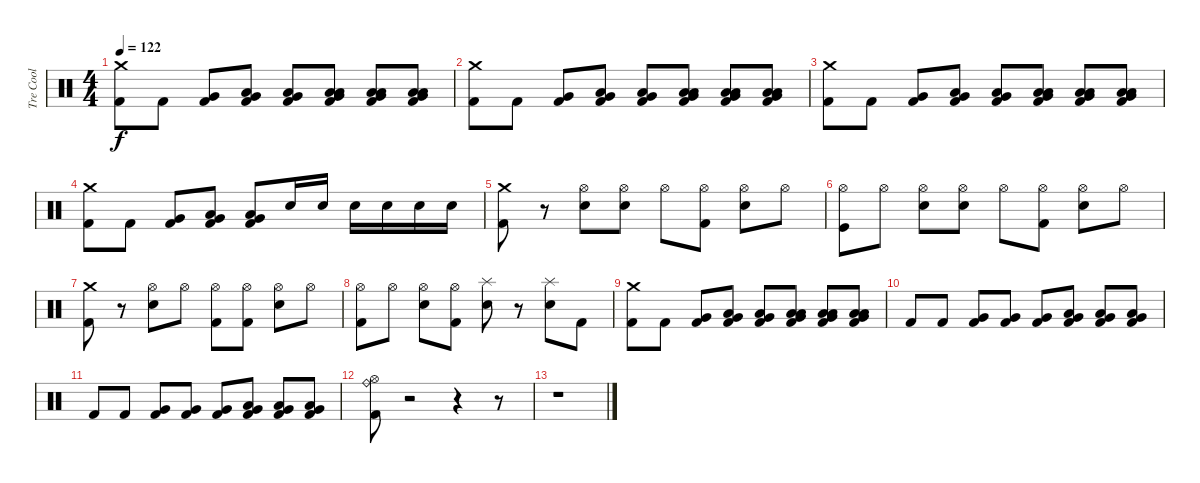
\track ("Tre Cool" "Tre Cool") {instrument percussion}
\staff {score}
\articulation defaults
\ts (4 4)
\tempo 122
\clef neutral
\ks c
("Crash medium (hit)" "Kick (hit) 2").8{dy f} "Kick (hit) 2".8 ("Very Low Tom (hit)" "Kick (hit) 2").8 ("Low Tom (hit)" "Very Low Tom (hit)" "Kick (hit) 2").8 ("Low Tom (hit)" "Very Low Tom (hit)" "Kick (hit) 2").8 ("Low Floor Tom (hit)" "Very Low Tom (hit)" "Low Tom (hit)" "Kick (hit) 2").8 ("Low Floor Tom (hit)" "Very Low Tom (hit)" "Low Tom (hit)" "Kick (hit) 2").8 ("Low Floor Tom (hit)" "Very Low Tom (hit)" "Low Tom (hit)" "Kick (hit) 2").8 |
("Crash medium (hit)" "Kick (hit) 2").8 "Kick (hit) 2".8 ("Very Low Tom (hit)" "Kick (hit) 2").8 ("Low Tom (hit)" "Very Low Tom (hit)" "Kick (hit) 2").8 ("Low Tom (hit)" "Very Low Tom (hit)" "Kick (hit) 2").8 ("Low Floor Tom (hit)" "Very Low Tom (hit)" "Low Tom (hit)" "Kick (hit) 2").8 ("Low Floor Tom (hit)" "Very Low Tom (hit)" "Low Tom (hit)" "Kick (hit) 2").8 ("Low Floor Tom (hit)" "Very Low Tom (hit)" "Low Tom (hit)" "Kick (hit) 2").8 |
("Crash medium (hit)" "Kick (hit) 2").8 "Kick (hit) 2".8 ("Very Low Tom (hit)" "Kick (hit) 2").8 ("Low Tom (hit)" "Very Low Tom (hit)" "Kick (hit) 2").8 ("Low Tom (hit)" "Very Low Tom (hit)" "Kick (hit) 2").8 ("Low Floor Tom (hit)" "Very Low Tom (hit)" "Low Tom (hit)" "Kick (hit) 2").8 ("Low Floor Tom (hit)" "Very Low Tom (hit)" "Low Tom (hit)" "Kick (hit) 2").8 ("Low Floor Tom (hit)" "Very Low Tom (hit)" "Low Tom (hit)" "Kick (hit) 2").8 |
("Crash medium (hit)" "Kick (hit) 2").8 "Kick (hit) 2".8 ("Very Low Tom (hit)" "Kick (hit) 2").8 ("Low Tom (hit)" "Very Low Tom (hit)" "Kick (hit) 2").8 ("Low Tom (hit)" "Very Low Tom (hit)" "Kick (hit) 2").8 "Electric Snare (hit)".16 "Electric Snare (hit)".16 "Electric Snare (hit)".16 "Electric Snare (hit)".16 "Electric Snare (hit)".16 "Electric Snare (hit)".16 |
("Kick (hit) 2" "Crash medium (hit)").8 r.8 ("Hi-Hat (open)" "Electric Snare (hit)").8 ("Hi-Hat (open)" "Electric Snare (hit)").8 "Hi-Hat (open)".8 ("Hi-Hat (open)" "Kick (hit) 2").8 ("Hi-Hat (open)" "Electric Snare (hit)").8 "Hi-Hat (open)".8 |
("Hi-Hat (open)" "Kick (hit)").8 "Hi-Hat (open)".8 ("Hi-Hat (open)" "Electric Snare (hit)").8 ("Hi-Hat (open)" "Electric Snare (hit)").8 "Hi-Hat (open)".8 ("Hi-Hat (open)" "Kick (hit) 2").8 ("Hi-Hat (open)" "Electric Snare (hit)").8 "Hi-Hat (open)".8 |
("Crash medium (hit)" "Kick (hit) 2").8 r.8 ("Hi-Hat (open)" "Electric Snare (hit)").8 "Hi-Hat (open)".8 ("Hi-Hat (open)" "Kick (hit) 2").8 ("Hi-Hat (open)" "Kick (hit) 2").8 ("Hi-Hat (open)" "Electric Snare (hit)").8 "Hi-Hat (open)".8 |
("Hi-Hat (open)" "Kick (hit) 2").8 "Hi-Hat (open)".8 ("Hi-Hat (open)" "Electric Snare (hit)").8 ("Hi-Hat (open)" "Kick (hit) 2").8 ("Splash (hit)" "Electric Snare (hit)").8 r.8 ("Splash (hit)" "Electric Snare (hit)").8 "Kick (hit) 2".8 |
("Crash medium (hit)" "Kick (hit) 2").8 "Kick (hit) 2".8 ("Very Low Tom (hit)" "Kick (hit) 2").8 ("Low Tom (hit)" "Very Low Tom (hit)" "Kick (hit) 2").8 ("Low Tom (hit)" "Very Low Tom (hit)" "Kick (hit) 2").8 ("Low Floor Tom (hit)" "Very Low Tom (hit)" "Low Tom (hit)" "Kick (hit) 2").8 ("Low Floor Tom (hit)" "Very Low Tom (hit)" "Low Tom (hit)" "Kick (hit) 2").8 ("Low Floor Tom (hit)" "Very Low Tom (hit)" "Low Tom (hit)" "Kick (hit) 2").8 |
"Kick (hit) 2".8 "Kick (hit) 2".8 ("Very Low Tom (hit)" "Kick (hit) 2").8 ("Very Low Tom (hit)" "Kick (hit) 2").8 ("Very Low Tom (hit)" "Kick (hit) 2").8 ("Low Floor Tom (hit)" "Very Low Tom (hit)" "Kick (hit) 2").8 ("Low Floor Tom (hit)" "Very Low Tom (hit)" "Kick (hit) 2").8 ("Low Floor Tom (hit)" "Very Low Tom (hit)" "Kick (hit) 2").8 |
"Kick (hit) 2".8 "Kick (hit) 2".8 ("Very Low Tom (hit)" "Kick (hit) 2").8 ("Very Low Tom (hit)" "Kick (hit) 2").8 ("Very Low Tom (hit)" "Kick (hit) 2").8 ("Low Floor Tom (hit)" "Very Low Tom (hit)" "Kick (hit) 2").8 ("Low Floor Tom (hit)" "Very Low Tom (hit)" "Kick (hit) 2").8 ("Low Floor Tom (hit)" "Very Low Tom (hit)" "Kick (hit) 2").8 |
("Hi-Hat (open)" "Ride (bell)" "Kick (hit) 2").8 r.2 r.4 r.8 |
r.1
